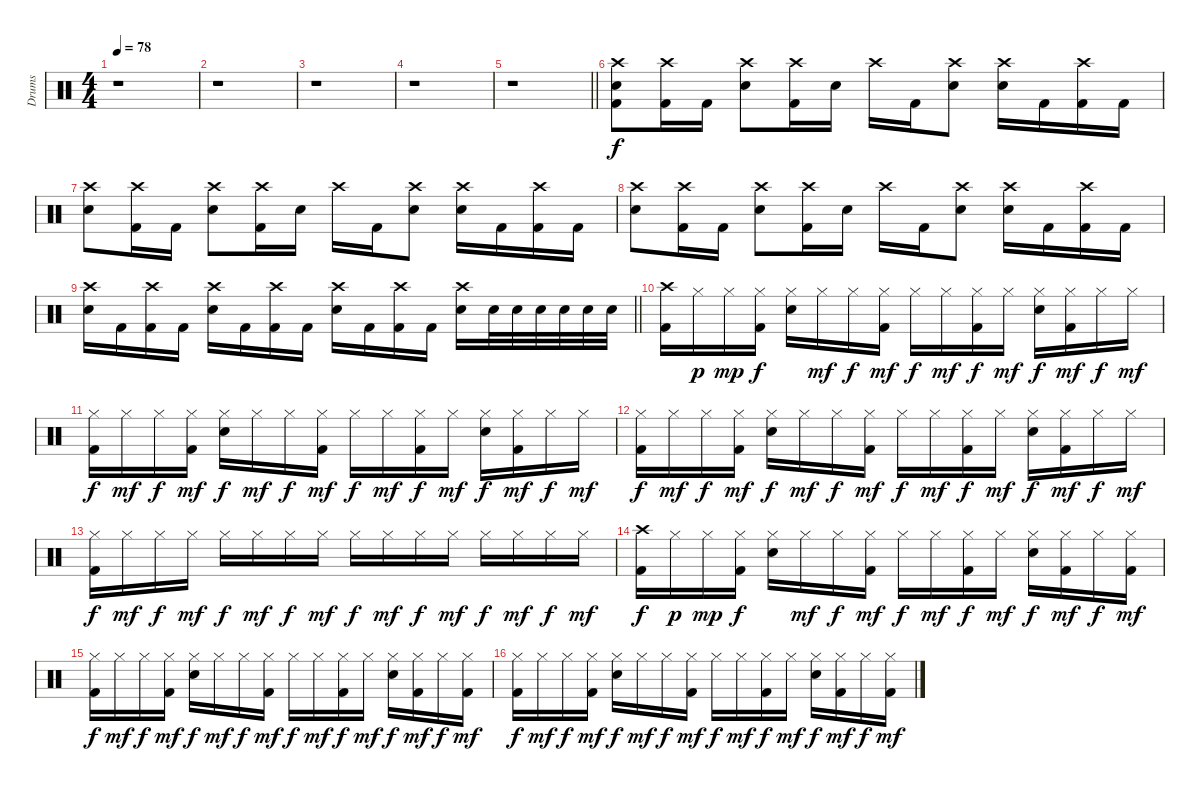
\track ("Drums" "Drums") {instrument percussion}
\staff {score}
\articulation defaults
\ts (4 4)
\tempo 78
\clef neutral
\ks c
r.1{dy f} |
r.1 |
r.1 |
r.1 |
\barLineRight lightlight
r.1 |
("Crash high (hit)" "Snare (hit) 2" "Kick (hit) 2").8 ("Crash high (hit)" "Kick (hit) 2").16 "Kick (hit) 2".16 ("Crash high (hit)" "Snare (hit) 2").8 ("Crash high (hit)" "Kick (hit) 2").16 "Snare (hit) 2".16 "Crash high (hit)".16 "Kick (hit) 2".16 ("Crash high (hit)" "Snare (hit) 2").8 ("Crash high (hit)" "Snare (hit) 2").16 "Kick (hit) 2".16 ("Crash high (hit)" "Kick (hit) 2").16 "Kick (hit) 2".16 |
("Crash high (hit)" "Snare (hit) 2").8 ("Crash high (hit)" "Kick (hit) 2").16 "Kick (hit) 2".16 ("Crash high (hit)" "Snare (hit) 2").8 ("Crash high (hit)" "Kick (hit) 2").16 "Snare (hit) 2".16 "Crash high (hit)".16 "Kick (hit) 2".16 ("Crash high (hit)" "Snare (hit) 2").8 ("Crash high (hit)" "Snare (hit) 2").16 "Kick (hit) 2".16 ("Crash high (hit)" "Kick (hit) 2").16 "Kick (hit) 2".16 |
("Crash high (hit)" "Snare (hit) 2").8 ("Crash high (hit)" "Kick (hit) 2").16 "Kick (hit) 2".16 ("Crash high (hit)" "Snare (hit) 2").8 ("Crash high (hit)" "Kick (hit) 2").16 "Snare (hit) 2".16 "Crash high (hit)".16 "Kick (hit) 2".16 ("Crash high (hit)" "Snare (hit) 2").8 ("Crash high (hit)" "Snare (hit) 2").16 "Kick (hit) 2".16 ("Crash high (hit)" "Kick (hit) 2").16 "Kick (hit) 2".16 |
\barLineRight lightlight
("Crash high (hit)" "Snare (hit) 2").16 "Kick (hit) 2".16 ("Crash high (hit)" "Kick (hit) 2").16 "Kick (hit) 2".16 ("Crash high (hit)" "Snare (hit) 2").16 "Kick (hit) 2".16 ("Crash high (hit)" "Kick (hit) 2").16 "Kick (hit) 2".16 ("Crash high (hit)" "Snare (hit) 2").16 "Kick (hit) 2".16 ("Crash high (hit)" "Kick (hit) 2").16 "Kick (hit) 2".16 ("Crash high (hit)" "Snare (hit) 2").16 "Snare (hit) 2".32 "Snare (hit) 2".32 "Snare (hit) 2".32 "Snare (hit) 2".32 "Snare (hit) 2".32 "Snare (hit) 2".32 |
("Crash high (hit)" "Kick (hit) 2").16 "Hi-Hat (closed)".16{dy p} "Hi-Hat (closed)".16{dy mp} ("Hi-Hat (closed)" "Kick (hit) 2").16{dy f} ("Hi-Hat (closed)" "Snare (hit) 2").16 "Hi-Hat (closed)".16{dy mf} "Hi-Hat (closed)".16{dy f} ("Hi-Hat (closed)" "Kick (hit) 2").16{dy mf} "Hi-Hat (closed)".16{dy f} "Hi-Hat (closed)".16{dy mf} ("Hi-Hat (closed)" "Kick (hit) 2").16{dy f} "Hi-Hat (closed)".16{dy mf} ("Hi-Hat (closed)" "Snare (hit) 2").16{dy f} ("Hi-Hat (closed)" "Kick (hit) 2").16{dy mf} "Hi-Hat (closed)".16{dy f} "Hi-Hat (closed)".16{dy mf} |
("Hi-Hat (closed)" "Kick (hit) 2").16{dy f} "Hi-Hat (closed)".16{dy mf} "Hi-Hat (closed)".16{dy f} ("Hi-Hat (closed)" "Kick (hit) 2").16{dy mf} ("Hi-Hat (closed)" "Snare (hit) 2").16{dy f} "Hi-Hat (closed)".16{dy mf} "Hi-Hat (closed)".16{dy f} ("Hi-Hat (closed)" "Kick (hit) 2").16{dy mf} "Hi-Hat (closed)".16{dy f} "Hi-Hat (closed)".16{dy mf} ("Hi-Hat (closed)" "Kick (hit) 2").16{dy f} "Hi-Hat (closed)".16{dy mf} ("Hi-Hat (closed)" "Snare (hit) 2").16{dy f} ("Hi-Hat (closed)" "Kick (hit) 2").16{dy mf} "Hi-Hat (closed)".16{dy f} "Hi-Hat (closed)".16{dy mf} |
("Hi-Hat (closed)" "Kick (hit) 2").16{dy f} "Hi-Hat (closed)".16{dy mf} "Hi-Hat (closed)".16{dy f} ("Hi-Hat (closed)" "Kick (hit) 2").16{dy mf} ("Hi-Hat (closed)" "Snare (hit) 2").16{dy f} "Hi-Hat (closed)".16{dy mf} "Hi-Hat (closed)".16{dy f} ("Hi-Hat (closed)" "Kick (hit) 2").16{dy mf} "Hi-Hat (closed)".16{dy f} "Hi-Hat (closed)".16{dy mf} ("Hi-Hat (closed)" "Kick (hit) 2").16{dy f} "Hi-Hat (closed)".16{dy mf} ("Hi-Hat (closed)" "Snare (hit) 2").16{dy f} ("Hi-Hat (closed)" "Kick (hit) 2").16{dy mf} "Hi-Hat (closed)".16{dy f} "Hi-Hat (closed)".16{dy mf} |
("Hi-Hat (closed)" "Kick (hit) 2").16{dy f} "Hi-Hat (closed)".16{dy mf} "Hi-Hat (closed)".16{dy f} "Hi-Hat (closed)".16{dy mf} "Hi-Hat (closed)".16{dy f} "Hi-Hat (closed)".16{dy mf} "Hi-Hat (closed)".16{dy f} "Hi-Hat (closed)".16{dy mf} "Hi-Hat (closed)".16{dy f} "Hi-Hat (closed)".16{dy mf} "Hi-Hat (closed)".16{dy f} "Hi-Hat (closed)".16{dy mf} "Hi-Hat (closed)".16{dy f} "Hi-Hat (closed)".16{dy mf} "Hi-Hat (closed)".16{dy f} "Hi-Hat (closed)".16{dy mf} |
("Crash high (hit)" "Kick (hit) 2").16{dy f} "Hi-Hat (closed)".16{dy p} "Hi-Hat (closed)".16{dy mp} ("Hi-Hat (closed)" "Kick (hit) 2").16{dy f} ("Hi-Hat (closed)" "Snare (hit) 2").16 "Hi-Hat (closed)".16{dy mf} "Hi-Hat (closed)".16{dy f} ("Hi-Hat (closed)" "Kick (hit) 2").16{dy mf} "Hi-Hat (closed)".16{dy f} "Hi-Hat (closed)".16{dy mf} ("Hi-Hat (closed)" "Kick (hit) 2").16{dy f} "Hi-Hat (closed)".16{dy mf} ("Hi-Hat (closed)" "Snare (hit) 2").16{dy f} ("Hi-Hat (closed)" "Kick (hit) 2").16{dy mf} "Hi-Hat (closed)".16{dy f} ("Hi-Hat (closed)" "Kick (hit) 2").16{dy mf} |
("Hi-Hat (closed)" "Kick (hit) 2").16{dy f} "Hi-Hat (closed)".16{dy mf} "Hi-Hat (closed)".16{dy f} ("Hi-Hat (closed)" "Kick (hit) 2").16{dy mf} ("Hi-Hat (closed)" "Snare (hit) 2").16{dy f} "Hi-Hat (closed)".16{dy mf} "Hi-Hat (closed)".16{dy f} ("Hi-Hat (closed)" "Kick (hit) 2").16{dy mf} "Hi-Hat (closed)".16{dy f} "Hi-Hat (closed)".16{dy mf} ("Hi-Hat (closed)" "Kick (hit) 2").16{dy f} "Hi-Hat (closed)".16{dy mf} ("Hi-Hat (closed)" "Snare (hit) 2").16{dy f} ("Hi-Hat (closed)" "Kick (hit) 2").16{dy mf} "Hi-Hat (closed)".16{dy f} ("Hi-Hat (closed)" "Kick (hit) 2").16{dy mf} |
("Hi-Hat (closed)" "Kick (hit) 2").16{dy f} "Hi-Hat (closed)".16{dy mf} "Hi-Hat (closed)".16{dy f} ("Hi-Hat (closed)" "Kick (hit) 2").16{dy mf} ("Hi-Hat (closed)" "Snare (hit) 2").16{dy f} "Hi-Hat (closed)".16{dy mf} "Hi-Hat (closed)".16{dy f} ("Hi-Hat (closed)" "Kick (hit) 2").16{dy mf} "Hi-Hat (closed)".16{dy f} "Hi-Hat (closed)".16{dy mf} ("Hi-Hat (closed)" "Kick (hit) 2").16{dy f} "Hi-Hat (closed)".16{dy mf} ("Hi-Hat (closed)" "Snare (hit) 2").16{dy f} ("Hi-Hat (closed)" "Kick (hit) 2").16{dy mf} "Hi-Hat (closed)".16{dy f} ("Hi-Hat (closed)" "Kick (hit) 2").16{dy mf}
